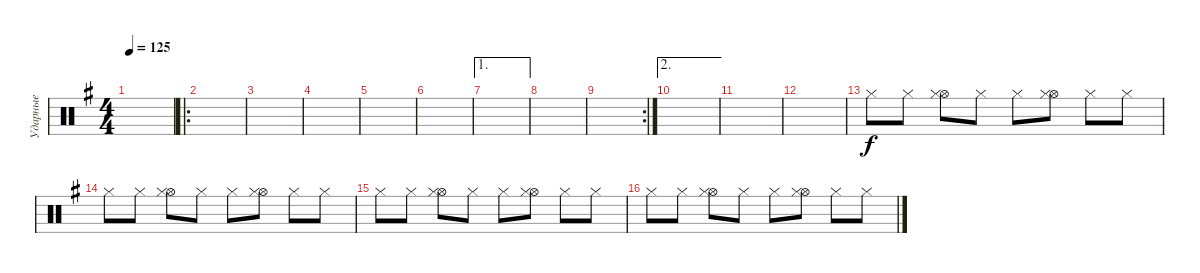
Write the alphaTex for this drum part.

\track ("Ударные" "Ударные") {instrument percussion}
\staff {score}
\articulation defaults
\ts (4 4)
\tempo 125
\clef neutral
\ks g
|
\ro
|
|
|
|
|
\ae 1
|
|
\rc 2
|
\ae 2
|
|
|
"Hi-Hat (closed)".8 "Hi-Hat (closed)".8 ("Hi-Hat (open)" "Hi-Hat (closed)").8 "Hi-Hat (closed)".8 "Hi-Hat (closed)".8 ("Hi-Hat (open)" "Hi-Hat (closed)").8 "Hi-Hat (closed)".8 "Hi-Hat (closed)".8 |
"Hi-Hat (closed)".8 "Hi-Hat (closed)".8 ("Hi-Hat (open)" "Hi-Hat (closed)").8 "Hi-Hat (closed)".8 "Hi-Hat (closed)".8 ("Hi-Hat (open)" "Hi-Hat (closed)").8 "Hi-Hat (closed)".8 "Hi-Hat (closed)".8 |
"Hi-Hat (closed)".8 "Hi-Hat (closed)".8 ("Hi-Hat (open)" "Hi-Hat (closed)").8 "Hi-Hat (closed)".8 "Hi-Hat (closed)".8 ("Hi-Hat (open)" "Hi-Hat (closed)").8 "Hi-Hat (closed)".8 "Hi-Hat (closed)".8 |
"Hi-Hat (closed)".8 "Hi-Hat (closed)".8 ("Hi-Hat (open)" "Hi-Hat (closed)").8 "Hi-Hat (closed)".8 "Hi-Hat (closed)".8 ("Hi-Hat (open)" "Hi-Hat (closed)").8 "Hi-Hat (closed)".8 "Hi-Hat (closed)".8
